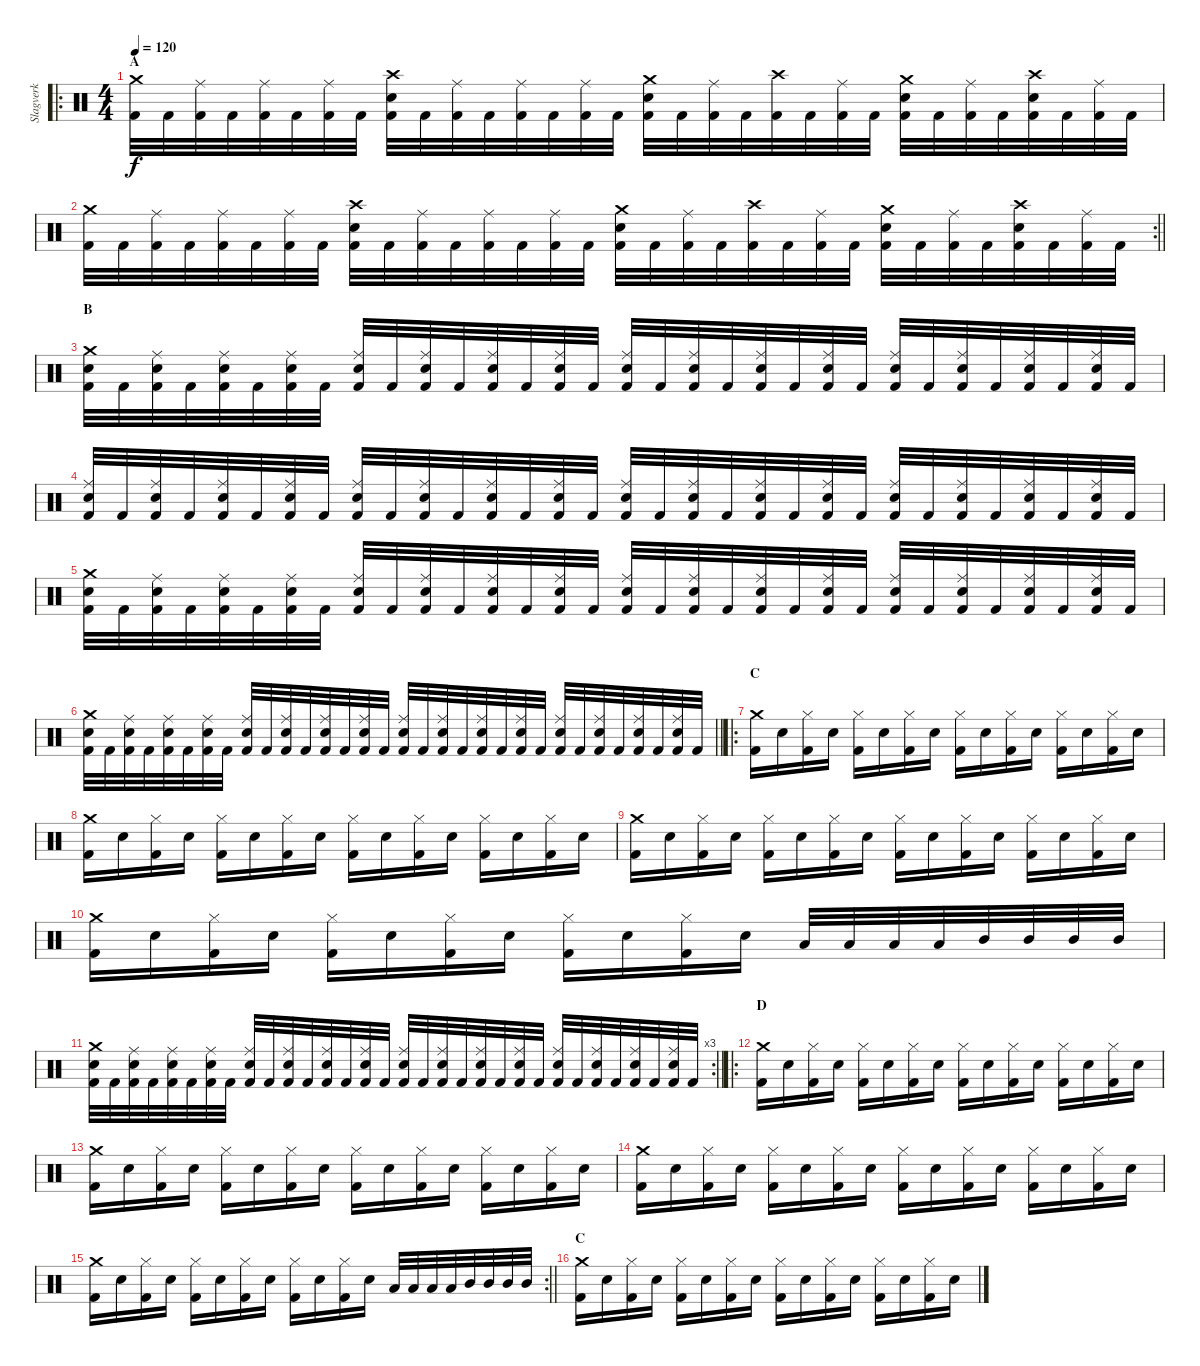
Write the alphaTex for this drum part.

\track ("Slagverk" "Slagverk") {instrument percussion}
\staff {score}
\articulation defaults
\ro
\ts (4 4)
\section ("" "A")
\tempo 120
\clef neutral
\ks c
("Crash medium (hit)" "Kick (hit) 2").32{dy f} "Kick (hit) 2".32 ("Ride (middle)" "Kick (hit) 2").32 "Kick (hit) 2".32 ("Ride (middle)" "Kick (hit) 2").32 "Kick (hit) 2".32 ("Ride (middle)" "Kick (hit) 2").32 "Kick (hit) 2".32 ("Crash high (hit)" "Electric Snare (hit)" "Kick (hit) 2").32 "Kick (hit) 2".32 ("Ride (middle)" "Kick (hit) 2").32 "Kick (hit) 2".32 ("Ride (middle)" "Kick (hit) 2").32 "Kick (hit) 2".32 ("Ride (middle)" "Kick (hit) 2").32 "Kick (hit) 2".32 ("Crash medium (hit)" "Electric Snare (hit)" "Kick (hit) 2").32 "Kick (hit) 2".32 ("Ride (middle)" "Kick (hit) 2").32 "Kick (hit) 2".32 ("Crash high (hit)" "Kick (hit) 2").32 "Kick (hit) 2".32 ("Ride (middle)" "Kick (hit) 2").32 "Kick (hit) 2".32 ("Crash medium (hit)" "Electric Snare (hit)" "Kick (hit) 2").32 "Kick (hit) 2".32 ("Ride (middle)" "Kick (hit) 2").32 "Kick (hit) 2".32 ("Crash high (hit)" "Electric Snare (hit)" "Kick (hit) 2").32 "Kick (hit) 2".32 ("Ride (middle)" "Kick (hit) 2").32 "Kick (hit) 2".32 |
\rc 2
\barLineRight lightlight
("Crash medium (hit)" "Kick (hit) 2").32 "Kick (hit) 2".32 ("Ride (middle)" "Kick (hit) 2").32 "Kick (hit) 2".32 ("Ride (middle)" "Kick (hit) 2").32 "Kick (hit) 2".32 ("Ride (middle)" "Kick (hit) 2").32 "Kick (hit) 2".32 ("Crash high (hit)" "Electric Snare (hit)" "Kick (hit) 2").32 "Kick (hit) 2".32 ("Ride (middle)" "Kick (hit) 2").32 "Kick (hit) 2".32 ("Ride (middle)" "Kick (hit) 2").32 "Kick (hit) 2".32 ("Ride (middle)" "Kick (hit) 2").32 "Kick (hit) 2".32 ("Crash medium (hit)" "Electric Snare (hit)" "Kick (hit) 2").32 "Kick (hit) 2".32 ("Ride (middle)" "Kick (hit) 2").32 "Kick (hit) 2".32 ("Crash high (hit)" "Kick (hit) 2").32 "Kick (hit) 2".32 ("Ride (middle)" "Kick (hit) 2").32 "Kick (hit) 2".32 ("Crash medium (hit)" "Electric Snare (hit)" "Kick (hit) 2").32 "Kick (hit) 2".32 ("Ride (middle)" "Kick (hit) 2").32 "Kick (hit) 2".32 ("Crash high (hit)" "Electric Snare (hit)" "Kick (hit) 2").32 "Kick (hit) 2".32 ("Ride (middle)" "Kick (hit) 2").32 "Kick (hit) 2".32 |
\section ("" "B")
("Crash medium (hit)" "Electric Snare (hit)" "Kick (hit) 2").32 "Kick (hit) 2".32 ("Ride (middle)" "Electric Snare (hit)" "Kick (hit) 2").32 "Kick (hit) 2".32 ("Ride (middle)" "Electric Snare (hit)" "Kick (hit) 2").32 "Kick (hit) 2".32 ("Ride (middle)" "Electric Snare (hit)" "Kick (hit) 2").32 "Kick (hit) 2".32 ("Ride (middle)" "Electric Snare (hit)" "Kick (hit) 2").32 "Kick (hit) 2".32 ("Ride (middle)" "Electric Snare (hit)" "Kick (hit) 2").32 "Kick (hit) 2".32 ("Ride (middle)" "Electric Snare (hit)" "Kick (hit) 2").32 "Kick (hit) 2".32 ("Ride (middle)" "Electric Snare (hit)" "Kick (hit) 2").32 "Kick (hit) 2".32 ("Ride (middle)" "Electric Snare (hit)" "Kick (hit) 2").32 "Kick (hit) 2".32 ("Ride (middle)" "Electric Snare (hit)" "Kick (hit) 2").32 "Kick (hit) 2".32 ("Ride (middle)" "Electric Snare (hit)" "Kick (hit) 2").32 "Kick (hit) 2".32 ("Ride (middle)" "Electric Snare (hit)" "Kick (hit) 2").32 "Kick (hit) 2".32 ("Ride (middle)" "Electric Snare (hit)" "Kick (hit) 2").32 "Kick (hit) 2".32 ("Ride (middle)" "Electric Snare (hit)" "Kick (hit) 2").32 "Kick (hit) 2".32 ("Ride (middle)" "Electric Snare (hit)" "Kick (hit) 2").32 "Kick (hit) 2".32 ("Ride (middle)" "Electric Snare (hit)" "Kick (hit) 2").32 "Kick (hit) 2".32 |
("Ride (middle)" "Electric Snare (hit)" "Kick (hit) 2").32 "Kick (hit) 2".32 ("Ride (middle)" "Electric Snare (hit)" "Kick (hit) 2").32 "Kick (hit) 2".32 ("Ride (middle)" "Electric Snare (hit)" "Kick (hit) 2").32 "Kick (hit) 2".32 ("Ride (middle)" "Electric Snare (hit)" "Kick (hit) 2").32 "Kick (hit) 2".32 ("Ride (middle)" "Electric Snare (hit)" "Kick (hit) 2").32 "Kick (hit) 2".32 ("Ride (middle)" "Electric Snare (hit)" "Kick (hit) 2").32 "Kick (hit) 2".32 ("Ride (middle)" "Electric Snare (hit)" "Kick (hit) 2").32 "Kick (hit) 2".32 ("Ride (middle)" "Electric Snare (hit)" "Kick (hit) 2").32 "Kick (hit) 2".32 ("Ride (middle)" "Electric Snare (hit)" "Kick (hit) 2").32 "Kick (hit) 2".32 ("Ride (middle)" "Electric Snare (hit)" "Kick (hit) 2").32 "Kick (hit) 2".32 ("Ride (middle)" "Electric Snare (hit)" "Kick (hit) 2").32 "Kick (hit) 2".32 ("Ride (middle)" "Electric Snare (hit)" "Kick (hit) 2").32 "Kick (hit) 2".32 ("Ride (middle)" "Electric Snare (hit)" "Kick (hit) 2").32 "Kick (hit) 2".32 ("Ride (middle)" "Electric Snare (hit)" "Kick (hit) 2").32 "Kick (hit) 2".32 ("Ride (middle)" "Electric Snare (hit)" "Kick (hit) 2").32 "Kick (hit) 2".32 ("Ride (middle)" "Electric Snare (hit)" "Kick (hit) 2").32 "Kick (hit) 2".32 |
("Crash medium (hit)" "Electric Snare (hit)" "Kick (hit) 2").32 "Kick (hit) 2".32 ("Ride (middle)" "Electric Snare (hit)" "Kick (hit) 2").32 "Kick (hit) 2".32 ("Ride (middle)" "Electric Snare (hit)" "Kick (hit) 2").32 "Kick (hit) 2".32 ("Ride (middle)" "Electric Snare (hit)" "Kick (hit) 2").32 "Kick (hit) 2".32 ("Ride (middle)" "Electric Snare (hit)" "Kick (hit) 2").32 "Kick (hit) 2".32 ("Ride (middle)" "Electric Snare (hit)" "Kick (hit) 2").32 "Kick (hit) 2".32 ("Ride (middle)" "Electric Snare (hit)" "Kick (hit) 2").32 "Kick (hit) 2".32 ("Ride (middle)" "Electric Snare (hit)" "Kick (hit) 2").32 "Kick (hit) 2".32 ("Ride (middle)" "Electric Snare (hit)" "Kick (hit) 2").32 "Kick (hit) 2".32 ("Ride (middle)" "Electric Snare (hit)" "Kick (hit) 2").32 "Kick (hit) 2".32 ("Ride (middle)" "Electric Snare (hit)" "Kick (hit) 2").32 "Kick (hit) 2".32 ("Ride (middle)" "Electric Snare (hit)" "Kick (hit) 2").32 "Kick (hit) 2".32 ("Ride (middle)" "Electric Snare (hit)" "Kick (hit) 2").32 "Kick (hit) 2".32 ("Ride (middle)" "Electric Snare (hit)" "Kick (hit) 2").32 "Kick (hit) 2".32 ("Ride (middle)" "Electric Snare (hit)" "Kick (hit) 2").32 "Kick (hit) 2".32 ("Ride (middle)" "Electric Snare (hit)" "Kick (hit) 2").32 "Kick (hit) 2".32 |
\barLineRight lightlight
("Crash medium (hit)" "Electric Snare (hit)" "Kick (hit) 2").32 "Kick (hit) 2".32 ("Ride (middle)" "Electric Snare (hit)" "Kick (hit) 2").32 "Kick (hit) 2".32 ("Ride (middle)" "Electric Snare (hit)" "Kick (hit) 2").32 "Kick (hit) 2".32 ("Ride (middle)" "Electric Snare (hit)" "Kick (hit) 2").32 "Kick (hit) 2".32 ("Ride (middle)" "Electric Snare (hit)" "Kick (hit) 2").32 "Kick (hit) 2".32 ("Ride (middle)" "Electric Snare (hit)" "Kick (hit) 2").32 "Kick (hit) 2".32 ("Ride (middle)" "Electric Snare (hit)" "Kick (hit) 2").32 "Kick (hit) 2".32 ("Ride (middle)" "Electric Snare (hit)" "Kick (hit) 2").32 "Kick (hit) 2".32 ("Ride (middle)" "Electric Snare (hit)" "Kick (hit) 2").32 "Kick (hit) 2".32 ("Ride (middle)" "Electric Snare (hit)" "Kick (hit) 2").32 "Kick (hit) 2".32 ("Ride (middle)" "Electric Snare (hit)" "Kick (hit) 2").32 "Kick (hit) 2".32 ("Ride (middle)" "Electric Snare (hit)" "Kick (hit) 2").32 "Kick (hit) 2".32 ("Ride (middle)" "Electric Snare (hit)" "Kick (hit) 2").32 "Kick (hit) 2".32 ("Ride (middle)" "Electric Snare (hit)" "Kick (hit) 2").32 "Kick (hit) 2".32 ("Ride (middle)" "Electric Snare (hit)" "Kick (hit) 2").32 "Kick (hit) 2".32 ("Ride (middle)" "Electric Snare (hit)" "Kick (hit) 2").32 "Kick (hit) 2".32 |
\ro
\section ("" "C")
("Crash medium (hit)" "Kick (hit) 2").16 "Electric Snare (hit)".16 ("Hi-Hat (closed)" "Kick (hit) 2").16 "Electric Snare (hit)".16 ("Hi-Hat (closed)" "Kick (hit) 2").16 "Electric Snare (hit)".16 ("Hi-Hat (closed)" "Kick (hit) 2").16 "Electric Snare (hit)".16 ("Hi-Hat (closed)" "Kick (hit) 2").16 "Electric Snare (hit)".16 ("Hi-Hat (closed)" "Kick (hit) 2").16 "Electric Snare (hit)".16 ("Hi-Hat (closed)" "Kick (hit) 2").16 "Electric Snare (hit)".16 ("Hi-Hat (closed)" "Kick (hit) 2").16 "Electric Snare (hit)".16 |
("Crash medium (hit)" "Kick (hit) 2").16 "Electric Snare (hit)".16 ("Hi-Hat (closed)" "Kick (hit) 2").16 "Electric Snare (hit)".16 ("Hi-Hat (closed)" "Kick (hit) 2").16 "Electric Snare (hit)".16 ("Hi-Hat (closed)" "Kick (hit) 2").16 "Electric Snare (hit)".16 ("Hi-Hat (closed)" "Kick (hit) 2").16 "Electric Snare (hit)".16 ("Hi-Hat (closed)" "Kick (hit) 2").16 "Electric Snare (hit)".16 ("Hi-Hat (closed)" "Kick (hit) 2").16 "Electric Snare (hit)".16 ("Hi-Hat (closed)" "Kick (hit) 2").16 "Electric Snare (hit)".16 |
("Crash medium (hit)" "Kick (hit) 2").16 "Electric Snare (hit)".16 ("Hi-Hat (closed)" "Kick (hit) 2").16 "Electric Snare (hit)".16 ("Hi-Hat (closed)" "Kick (hit) 2").16 "Electric Snare (hit)".16 ("Hi-Hat (closed)" "Kick (hit) 2").16 "Electric Snare (hit)".16 ("Hi-Hat (closed)" "Kick (hit) 2").16 "Electric Snare (hit)".16 ("Hi-Hat (closed)" "Kick (hit) 2").16 "Electric Snare (hit)".16 ("Hi-Hat (closed)" "Kick (hit) 2").16 "Electric Snare (hit)".16 ("Hi-Hat (closed)" "Kick (hit) 2").16 "Electric Snare (hit)".16 |
("Crash medium (hit)" "Kick (hit) 2").16 "Electric Snare (hit)".16 ("Hi-Hat (closed)" "Kick (hit) 2").16 "Electric Snare (hit)".16 ("Hi-Hat (closed)" "Kick (hit) 2").16 "Electric Snare (hit)".16 ("Hi-Hat (closed)" "Kick (hit) 2").16 "Electric Snare (hit)".16 ("Hi-Hat (closed)" "Kick (hit) 2").16 "Electric Snare (hit)".16 ("Hi-Hat (closed)" "Kick (hit) 2").16 "Electric Snare (hit)".16 "Low Tom (hit)".32 "Low Tom (hit)".32 "Low Tom (hit)".32 "Low Tom (hit)".32 "Mid Tom (hit)".32 "Mid Tom (hit)".32 "Mid Tom (hit)".32 "Mid Tom (hit)".32 |
\rc 3
\barLineRight lightlight
("Crash medium (hit)" "Electric Snare (hit)" "Kick (hit) 2").32 "Kick (hit) 2".32 ("Ride (middle)" "Electric Snare (hit)" "Kick (hit) 2").32 "Kick (hit) 2".32 ("Ride (middle)" "Electric Snare (hit)" "Kick (hit) 2").32 "Kick (hit) 2".32 ("Ride (middle)" "Electric Snare (hit)" "Kick (hit) 2").32 "Kick (hit) 2".32 ("Ride (middle)" "Electric Snare (hit)" "Kick (hit) 2").32 "Kick (hit) 2".32 ("Ride (middle)" "Electric Snare (hit)" "Kick (hit) 2").32 "Kick (hit) 2".32 ("Ride (middle)" "Electric Snare (hit)" "Kick (hit) 2").32 "Kick (hit) 2".32 ("Ride (middle)" "Electric Snare (hit)" "Kick (hit) 2").32 "Kick (hit) 2".32 ("Ride (middle)" "Electric Snare (hit)" "Kick (hit) 2").32 "Kick (hit) 2".32 ("Ride (middle)" "Electric Snare (hit)" "Kick (hit) 2").32 "Kick (hit) 2".32 ("Ride (middle)" "Electric Snare (hit)" "Kick (hit) 2").32 "Kick (hit) 2".32 ("Ride (middle)" "Electric Snare (hit)" "Kick (hit) 2").32 "Kick (hit) 2".32 ("Ride (middle)" "Electric Snare (hit)" "Kick (hit) 2").32 "Kick (hit) 2".32 ("Ride (middle)" "Electric Snare (hit)" "Kick (hit) 2").32 "Kick (hit) 2".32 ("Ride (middle)" "Electric Snare (hit)" "Kick (hit) 2").32 "Kick (hit) 2".32 ("Ride (middle)" "Electric Snare (hit)" "Kick (hit) 2").32 "Kick (hit) 2".32 |
\ro
\section ("" "D")
("Crash medium (hit)" "Kick (hit) 2").16 "Electric Snare (hit)".16 ("Hi-Hat (closed)" "Kick (hit) 2").16 "Electric Snare (hit)".16 ("Hi-Hat (closed)" "Kick (hit) 2").16 "Electric Snare (hit)".16 ("Hi-Hat (closed)" "Kick (hit) 2").16 "Electric Snare (hit)".16 ("Hi-Hat (closed)" "Kick (hit) 2").16 "Electric Snare (hit)".16 ("Hi-Hat (closed)" "Kick (hit) 2").16 "Electric Snare (hit)".16 ("Hi-Hat (closed)" "Kick (hit) 2").16 "Electric Snare (hit)".16 ("Hi-Hat (closed)" "Kick (hit) 2").16 "Electric Snare (hit)".16 |
("Crash medium (hit)" "Kick (hit) 2").16 "Electric Snare (hit)".16 ("Hi-Hat (closed)" "Kick (hit) 2").16 "Electric Snare (hit)".16 ("Hi-Hat (closed)" "Kick (hit) 2").16 "Electric Snare (hit)".16 ("Hi-Hat (closed)" "Kick (hit) 2").16 "Electric Snare (hit)".16 ("Hi-Hat (closed)" "Kick (hit) 2").16 "Electric Snare (hit)".16 ("Hi-Hat (closed)" "Kick (hit) 2").16 "Electric Snare (hit)".16 ("Hi-Hat (closed)" "Kick (hit) 2").16 "Electric Snare (hit)".16 ("Hi-Hat (closed)" "Kick (hit) 2").16 "Electric Snare (hit)".16 |
("Crash medium (hit)" "Kick (hit) 2").16 "Electric Snare (hit)".16 ("Hi-Hat (closed)" "Kick (hit) 2").16 "Electric Snare (hit)".16 ("Hi-Hat (closed)" "Kick (hit) 2").16 "Electric Snare (hit)".16 ("Hi-Hat (closed)" "Kick (hit) 2").16 "Electric Snare (hit)".16 ("Hi-Hat (closed)" "Kick (hit) 2").16 "Electric Snare (hit)".16 ("Hi-Hat (closed)" "Kick (hit) 2").16 "Electric Snare (hit)".16 ("Hi-Hat (closed)" "Kick (hit) 2").16 "Electric Snare (hit)".16 ("Hi-Hat (closed)" "Kick (hit) 2").16 "Electric Snare (hit)".16 |
\rc 2
\barLineRight lightlight
("Crash medium (hit)" "Kick (hit) 2").16 "Electric Snare (hit)".16 ("Hi-Hat (closed)" "Kick (hit) 2").16 "Electric Snare (hit)".16 ("Hi-Hat (closed)" "Kick (hit) 2").16 "Electric Snare (hit)".16 ("Hi-Hat (closed)" "Kick (hit) 2").16 "Electric Snare (hit)".16 ("Hi-Hat (closed)" "Kick (hit) 2").16 "Electric Snare (hit)".16 ("Hi-Hat (closed)" "Kick (hit) 2").16 "Electric Snare (hit)".16 "Low Tom (hit)".32 "Low Tom (hit)".32 "Low Tom (hit)".32 "Low Tom (hit)".32 "Mid Tom (hit)".32 "Mid Tom (hit)".32 "Mid Tom (hit)".32 "Mid Tom (hit)".32 |
\section ("" "C")
("Crash medium (hit)" "Kick (hit) 2").16 "Electric Snare (hit)".16 ("Hi-Hat (closed)" "Kick (hit) 2").16 "Electric Snare (hit)".16 ("Hi-Hat (closed)" "Kick (hit) 2").16 "Electric Snare (hit)".16 ("Hi-Hat (closed)" "Kick (hit) 2").16 "Electric Snare (hit)".16 ("Hi-Hat (closed)" "Kick (hit) 2").16 "Electric Snare (hit)".16 ("Hi-Hat (closed)" "Kick (hit) 2").16 "Electric Snare (hit)".16 ("Hi-Hat (closed)" "Kick (hit) 2").16 "Electric Snare (hit)".16 ("Hi-Hat (closed)" "Kick (hit) 2").16 "Electric Snare (hit)".16
